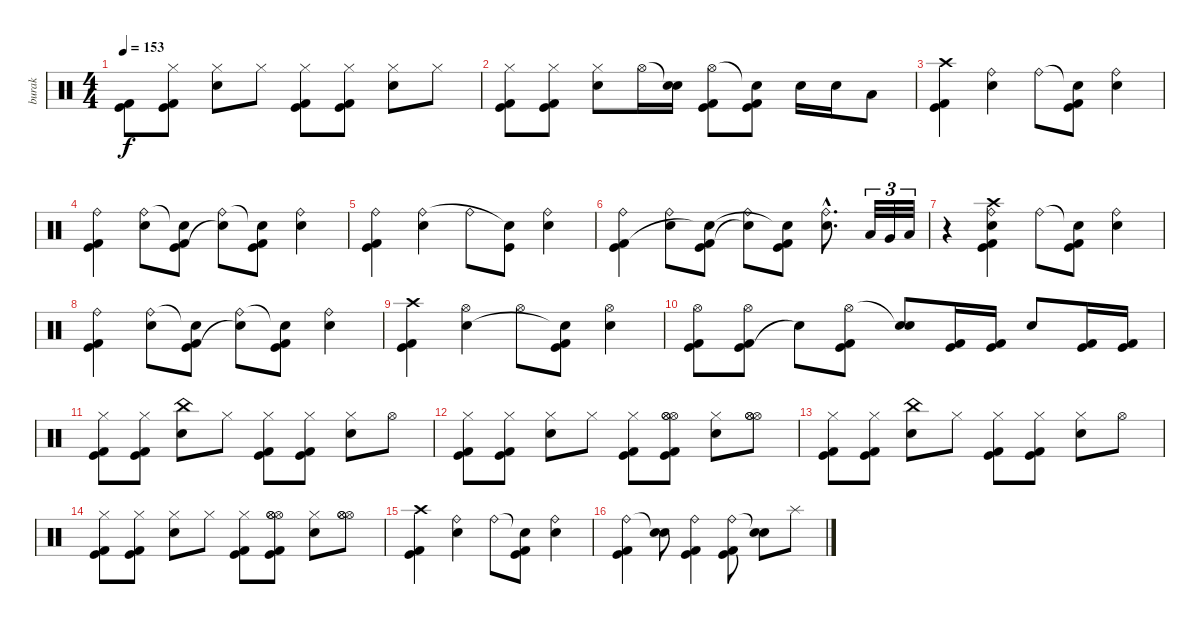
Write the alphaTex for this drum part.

\track ("burak" "burak") {instrument percussion}
\staff {score}
\articulation defaults
\ts (4 4)
\tempo 153
\clef neutral
\ks c
("Kick (hit)" "Kick (hit) 2").8{dy f} ("Hi-Hat (closed)" "Kick (hit)" "Kick (hit) 2").8 ("Hi-Hat (closed)" "Electric Snare (hit)").8 "Hi-Hat (closed)".8 ("Hi-Hat (closed)" "Kick (hit)" "Kick (hit) 2").8 ("Hi-Hat (closed)" "Kick (hit)" "Kick (hit) 2").8 ("Hi-Hat (closed)" "Electric Snare (hit)").8 "Hi-Hat (closed)".8 |
("Hi-Hat (closed)" "Kick (hit)" "Kick (hit) 2").8 ("Hi-Hat (closed)" "Kick (hit)" "Kick (hit) 2").8 ("Hi-Hat (closed)" "Electric Snare (hit)").8 "Hi-Hat (open)".16 ("Snare (hit)"{t} "Electric Snare (hit)").16 ("Kick (hit)" "Hi-Hat (open)" "Kick (hit) 2").8 ("Kick (hit)" "Snare (hit)"{t} "Kick (hit) 2").8 "Electric Snare (hit)".16 "Electric Snare (hit)".16 "Low Tom (hit)".8 |
("Kick (hit)" "Kick (hit) 2" "Crash high (hit)").4 ("Electric Snare (hit)" "Ride (bell)").4 "Ride (bell)".8 ("Snare (hit)"{t} "Kick (hit) 2" "Kick (hit)").8 ("Electric Snare (hit)" "Ride (bell)").4 |
("Kick (hit) 2" "Kick (hit)" "Ride (bell)").4 ("Electric Snare (hit)" "Ride (bell)").8 ("Kick (hit)" "Snare (hit)"{t} "Kick (hit) 2").8 ("Snare (hit)"{t} "Ride (bell)").8 ("Kick (hit)" "Snare (hit)"{t} "Kick (hit) 2").8 ("Electric Snare (hit)" "Ride (bell)").4 |
("Kick (hit)" "Ride (bell)" "Kick (hit) 2").4 ("Electric Snare (hit)" "Ride (bell)").4 "Ride (bell)".8 ("Kick (hit)" "Snare (hit)"{t}).8 ("Electric Snare (hit)" "Ride (bell)").4 |
("Kick (hit)" "Ride (bell)" "Kick (hit) 2").4 ("Electric Snare (hit)" "Ride (bell)").8 ("Kick (hit) 2" "Kick (hit)" "Snare (hit)"{t}).8 ("Snare (hit)"{t} "Ride (bell)").8 ("Kick (hit)" "Kick (hit) 2" "Snare (hit)"{t}).8 ("Electric Snare (hit)"{hac} "Ride (bell)"{hac}).8{d} "Low Tom (hit)".32{tu (3 2)} "Very Low Tom (hit)".32{tu (3 2)} "Low Floor Tom (hit)".32{tu (3 2)} |
r.4 ("Electric Snare (hit)" "Ride (bell)" "Crash high (hit)" "Kick (hit) 2" "Kick (hit)").4 "Ride (bell)".8 ("Snare (hit)"{t} "Kick (hit) 2" "Kick (hit)").8 ("Electric Snare (hit)" "Ride (bell)").4 |
("Kick (hit) 2" "Kick (hit)" "Ride (bell)").4 ("Electric Snare (hit)" "Ride (bell)").8 ("Kick (hit)" "Snare (hit)"{t} "Kick (hit) 2").8 ("Snare (hit)"{t} "Ride (bell)").8 ("Kick (hit)" "Snare (hit)"{t} "Kick (hit) 2").8 ("Electric Snare (hit)" "Ride (bell)").4 |
("Kick (hit)" "Crash high (hit)" "Kick (hit) 2").4 ("Hi-Hat (open)" "Electric Snare (hit)").4 "Hi-Hat (open)".8 ("Kick (hit)" "Snare (hit)"{t} "Kick (hit) 2").8 ("Hi-Hat (open)" "Electric Snare (hit)").4 |
("Kick (hit) 2" "Hi-Hat (open)" "Kick (hit)").8 ("Kick (hit)" "Hi-Hat (open)" "Kick (hit) 2").8 "Snare (hit)"{t}.8 ("Kick (hit)" "Hi-Hat (open)" "Kick (hit) 2").8 ("Electric Snare (hit)" "Snare (hit)"{t}).8 ("Kick (hit)" "Kick (hit) 2").16 ("Kick (hit)" "Kick (hit) 2").16 "Electric Snare (hit)".8 ("Kick (hit) 2" "Kick (hit)").16 ("Kick (hit) 2" "Kick (hit)").16 |
("Hi-Hat (closed)" "Kick (hit)" "Kick (hit) 2").8 ("Hi-Hat (closed)" "Kick (hit)" "Kick (hit) 2").8 ("Electric Snare (hit)" "China (hit)").8 "Hi-Hat (closed)".8 ("Hi-Hat (closed)" "Kick (hit) 2" "Kick (hit)").8 ("Hi-Hat (closed)" "Kick (hit)" "Kick (hit) 2").8 ("Hi-Hat (closed)" "Electric Snare (hit)").8 "Hi-Hat (open)".8 |
("Hi-Hat (closed)" "Kick (hit)" "Kick (hit) 2").8 ("Hi-Hat (closed)" "Kick (hit)" "Kick (hit) 2").8 ("Hi-Hat (closed)" "Electric Snare (hit)").8 "Hi-Hat (closed)".8 ("Hi-Hat (closed)" "Kick (hit)" "Kick (hit) 2").8 ("Kick (hit)" "Kick (hit) 2" "Hi-Hat (open)" "Hi-Hat (open)" "Hi-Hat (open)").8 ("Hi-Hat (closed)" "Electric Snare (hit)").8 ("Hi-Hat (open)" "Hi-Hat (open)" "Hi-Hat (open)").8 |
("Hi-Hat (closed)" "Kick (hit)" "Kick (hit) 2").8 ("Hi-Hat (closed)" "Kick (hit)" "Kick (hit) 2").8 ("Electric Snare (hit)" "China (hit)").8 "Hi-Hat (closed)".8 ("Hi-Hat (closed)" "Kick (hit) 2" "Kick (hit)").8 ("Hi-Hat (closed)" "Kick (hit)" "Kick (hit) 2").8 ("Hi-Hat (closed)" "Electric Snare (hit)").8 "Hi-Hat (open)".8 |
("Hi-Hat (closed)" "Kick (hit)" "Kick (hit) 2").8 ("Hi-Hat (closed)" "Kick (hit)" "Kick (hit) 2").8 ("Hi-Hat (closed)" "Electric Snare (hit)").8 "Hi-Hat (closed)".8 ("Hi-Hat (closed)" "Kick (hit)" "Kick (hit) 2").8 ("Kick (hit)" "Kick (hit) 2" "Hi-Hat (open)" "Hi-Hat (open)" "Hi-Hat (open)").8 ("Hi-Hat (closed)" "Electric Snare (hit)").8 ("Hi-Hat (open)" "Hi-Hat (open)" "Hi-Hat (open)").8 |
("Crash high (hit)" "Kick (hit)" "Kick (hit) 2").4 ("Ride (bell)" "Electric Snare (hit)").4 "Ride (bell)".8 ("Snare (hit)"{t} "Kick (hit)" "Kick (hit) 2").8 ("Ride (bell)" "Electric Snare (hit)").4 |
("Ride (bell)" "Kick (hit)" "Kick (hit) 2").4 ("Snare (hit)"{t} "Electric Snare (hit)").8 ("Ride (bell)" "Kick (hit)" "Kick (hit) 2").4 ("Ride (bell)" "Kick (hit)" "Kick (hit) 2").8 ("Snare (hit)"{t} "Electric Snare (hit)").8 "Splash (hit)".8
